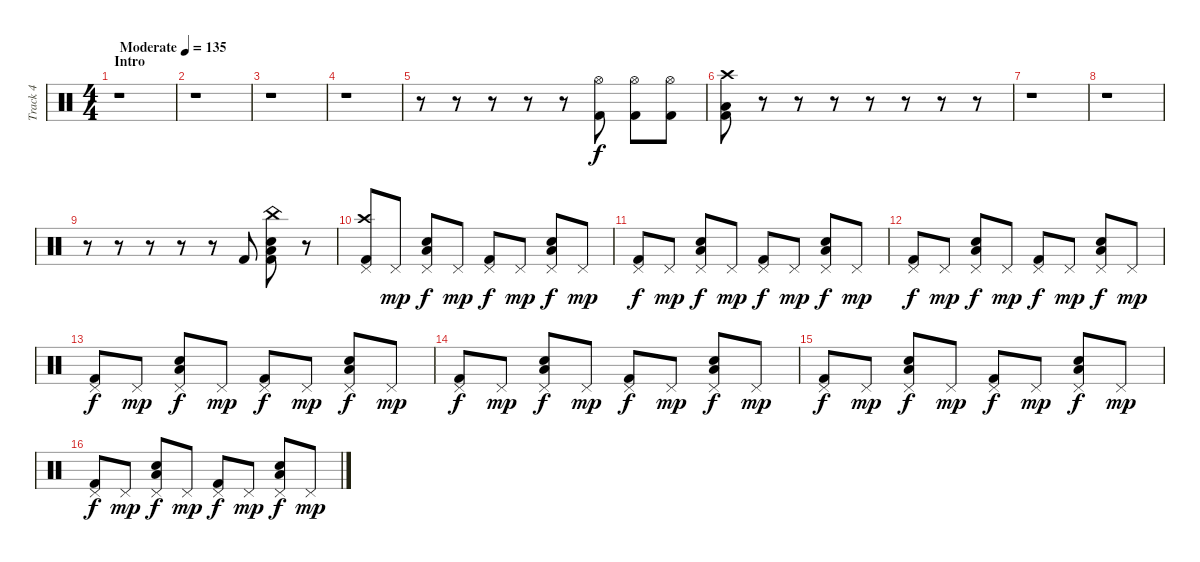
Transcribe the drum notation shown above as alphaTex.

\track ("Track 4" "Track 4") {instrument percussion}
\staff {score}
\articulation defaults
\ts (4 4)
\section ("" "Intro")
\tempo (135 "Moderate")
\clef neutral
\ks c
r.1{dy f} |
r.1 |
r.1 |
r.1 |
r.8 r.8 r.8 r.8 r.8 ("Kick (hit) 2" "Hi-Hat (open)").8 ("Kick (hit) 2" "Hi-Hat (open)").8 ("Kick (hit) 2" "Hi-Hat (open)").8 |
("Kick (hit) 2" "Low Floor Tom (hit)" "Crash high (hit)").8 r.8 r.8 r.8 r.8 r.8 r.8 r.8 |
r.1 |
r.1 |
r.8 r.8 r.8 r.8 r.8 "Kick (hit) 2".8 ("Low Tom (hit)" "Snare (hit) 2" "Kick (hit) 2" "China (hit)").8 r.8 |
("Pedal Hi-Hat (hit)" "Kick (hit) 2" "Crash high (hit)").8 "Pedal Hi-Hat (hit)".8{dy mp} ("Pedal Hi-Hat (hit)" "Low Tom (hit)" "Electric Snare (hit)").8{dy f} "Pedal Hi-Hat (hit)".8{dy mp} ("Pedal Hi-Hat (hit)" "Kick (hit) 2").8{dy f} "Pedal Hi-Hat (hit)".8{dy mp} ("Pedal Hi-Hat (hit)" "Low Tom (hit)" "Electric Snare (hit)").8{dy f} "Pedal Hi-Hat (hit)".8{dy mp} |
("Pedal Hi-Hat (hit)" "Kick (hit) 2").8{dy f} "Pedal Hi-Hat (hit)".8{dy mp} ("Pedal Hi-Hat (hit)" "Low Tom (hit)" "Electric Snare (hit)").8{dy f} "Pedal Hi-Hat (hit)".8{dy mp} ("Pedal Hi-Hat (hit)" "Kick (hit) 2").8{dy f} "Pedal Hi-Hat (hit)".8{dy mp} ("Pedal Hi-Hat (hit)" "Low Tom (hit)" "Electric Snare (hit)").8{dy f} "Pedal Hi-Hat (hit)".8{dy mp} |
("Pedal Hi-Hat (hit)" "Kick (hit) 2").8{dy f} "Pedal Hi-Hat (hit)".8{dy mp} ("Pedal Hi-Hat (hit)" "Low Tom (hit)" "Electric Snare (hit)").8{dy f} "Pedal Hi-Hat (hit)".8{dy mp} ("Pedal Hi-Hat (hit)" "Kick (hit) 2").8{dy f} "Pedal Hi-Hat (hit)".8{dy mp} ("Pedal Hi-Hat (hit)" "Low Tom (hit)" "Electric Snare (hit)").8{dy f} "Pedal Hi-Hat (hit)".8{dy mp} |
("Pedal Hi-Hat (hit)" "Kick (hit) 2").8{dy f} "Pedal Hi-Hat (hit)".8{dy mp} ("Pedal Hi-Hat (hit)" "Low Tom (hit)" "Electric Snare (hit)").8{dy f} "Pedal Hi-Hat (hit)".8{dy mp} ("Pedal Hi-Hat (hit)" "Kick (hit) 2").8{dy f} "Pedal Hi-Hat (hit)".8{dy mp} ("Pedal Hi-Hat (hit)" "Low Tom (hit)" "Electric Snare (hit)").8{dy f} "Pedal Hi-Hat (hit)".8{dy mp} |
("Pedal Hi-Hat (hit)" "Kick (hit) 2").8{dy f} "Pedal Hi-Hat (hit)".8{dy mp} ("Pedal Hi-Hat (hit)" "Low Tom (hit)" "Electric Snare (hit)").8{dy f} "Pedal Hi-Hat (hit)".8{dy mp} ("Pedal Hi-Hat (hit)" "Kick (hit) 2").8{dy f} "Pedal Hi-Hat (hit)".8{dy mp} ("Pedal Hi-Hat (hit)" "Low Tom (hit)" "Electric Snare (hit)").8{dy f} "Pedal Hi-Hat (hit)".8{dy mp} |
("Pedal Hi-Hat (hit)" "Kick (hit) 2").8{dy f} "Pedal Hi-Hat (hit)".8{dy mp} ("Pedal Hi-Hat (hit)" "Low Tom (hit)" "Electric Snare (hit)").8{dy f} "Pedal Hi-Hat (hit)".8{dy mp} ("Pedal Hi-Hat (hit)" "Kick (hit) 2").8{dy f} "Pedal Hi-Hat (hit)".8{dy mp} ("Pedal Hi-Hat (hit)" "Low Tom (hit)" "Electric Snare (hit)").8{dy f} "Pedal Hi-Hat (hit)".8{dy mp} |
("Pedal Hi-Hat (hit)" "Kick (hit) 2").8{dy f} "Pedal Hi-Hat (hit)".8{dy mp} ("Pedal Hi-Hat (hit)" "Low Tom (hit)" "Electric Snare (hit)").8{dy f} "Pedal Hi-Hat (hit)".8{dy mp} ("Pedal Hi-Hat (hit)" "Kick (hit) 2").8{dy f} "Pedal Hi-Hat (hit)".8{dy mp} ("Pedal Hi-Hat (hit)" "Low Tom (hit)" "Electric Snare (hit)").8{dy f} "Pedal Hi-Hat (hit)".8{dy mp}
